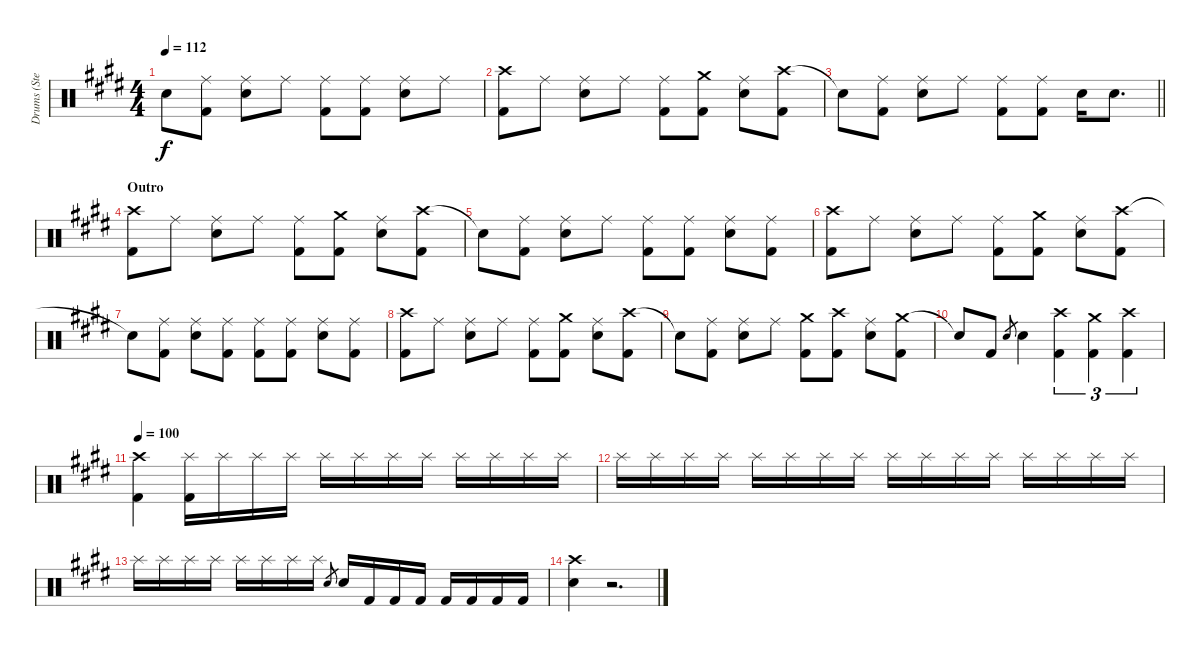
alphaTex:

\track ("Drums (Steven)" "Drums (Ste") {instrument percussion}
\staff {score}
\articulation defaults
\ts (4 4)
\tempo 112
\clef neutral
\ks e "Snare (hit)"{t}.8{dy f}
("Ride (middle)" "Kick (hit) 2").8 ("Ride (middle)" "Snare (hit) 2").8 "Ride (middle)".8 ("Ride (middle)" "Kick (hit) 2").8 ("Ride (middle)" "Kick (hit) 2").8 ("Ride (middle)" "Snare (hit) 2").8 "Ride (middle)".8 |
("Crash high (hit)" "Kick (hit) 2").8 "Ride (middle)".8 ("Ride (middle)" "Snare (hit) 2").8 "Ride (middle)".8 ("Ride (middle)" "Kick (hit) 2").8 ("Crash medium (hit)" "Kick (hit) 2").8 ("Ride (middle)" "Snare (hit) 2").8 ("Crash high (hit)" "Kick (hit) 2").8 |
\barLineRight lightlight "Snare (hit)"{t}.8
("Ride (middle)" "Kick (hit) 2").8 ("Ride (middle)" "Snare (hit) 2").8 "Ride (middle)".8 ("Ride (middle)" "Kick (hit) 2").8 ("Ride (middle)" "Kick (hit) 2").8 "Snare (hit) 2".16 "Snare (hit) 2".8{d} |
\section ("" "Outro")
("Crash high (hit)" "Kick (hit) 2").8 "Ride (middle)".8 ("Ride (middle)" "Snare (hit) 2").8 "Ride (middle)".8 ("Ride (middle)" "Kick (hit) 2").8 ("Crash medium (hit)" "Kick (hit) 2").8 ("Ride (middle)" "Snare (hit) 2").8 ("Crash high (hit)" "Kick (hit) 2").8 |
"Snare (hit)"{t}.8 ("Ride (middle)" "Kick (hit) 2").8 ("Ride (middle)" "Snare (hit) 2").8 "Ride (middle)".8 ("Ride (middle)" "Kick (hit) 2").8 ("Ride (middle)" "Kick (hit) 2").8 ("Ride (middle)" "Snare (hit) 2").8 ("Ride (middle)" "Kick (hit) 2").8 |
("Crash high (hit)" "Kick (hit) 2").8 "Ride (middle)".8 ("Ride (middle)" "Snare (hit) 2").8 "Ride (middle)".8 ("Ride (middle)" "Kick (hit) 2").8 ("Crash medium (hit)" "Kick (hit) 2").8 ("Ride (middle)" "Snare (hit) 2").8 ("Crash high (hit)" "Kick (hit) 2").8 |
"Snare (hit)"{t}.8 ("Ride (middle)" "Kick (hit) 2").8 ("Ride (middle)" "Snare (hit) 2").8 ("Ride (middle)" "Kick (hit) 2").8 ("Ride (middle)" "Kick (hit) 2").8 ("Ride (middle)" "Kick (hit) 2").8 ("Ride (middle)" "Snare (hit) 2").8 ("Ride (middle)" "Kick (hit) 2").8 |
("Crash high (hit)" "Kick (hit) 2").8 "Ride (middle)".8 ("Ride (middle)" "Snare (hit) 2").8 "Ride (middle)".8 ("Ride (middle)" "Kick (hit) 2").8 ("Crash medium (hit)" "Kick (hit) 2").8 ("Ride (middle)" "Snare (hit) 2").8 ("Crash high (hit)" "Kick (hit) 2").8 |
"Snare (hit)"{t}.8 ("Ride (middle)" "Kick (hit) 2").8 ("Ride (middle)" "Snare (hit) 2").8 "Ride (middle)".8 ("Crash medium (hit)" "Kick (hit) 2").8 ("Crash high (hit)" "Kick (hit) 2").8 ("Ride (middle)" "Snare (hit) 2").8 ("Crash medium (hit)" "Kick (hit) 2").8 |
"Snare (hit)"{t}.8 "Kick (hit) 2".8 "Snare (hit) 2".8{gr} "Snare (hit) 2".4 ("Crash high (hit)" "Kick (hit) 2").4{tu (3 2)} ("Crash medium (hit)" "Kick (hit) 2").4{tu (3 2)} ("Crash high (hit)" "Kick (hit) 2").4{tu (3 2)} |
\tempo 100
("Crash high (hit)" "Kick (hit) 2").4 ("Splash (hit)" "Kick (hit) 2").16 "Splash (hit)".16 "Splash (hit)".16 "Splash (hit)".16 "Splash (hit)".16 "Splash (hit)".16 "Splash (hit)".16 "Splash (hit)".16 "Splash (hit)".16 "Splash (hit)".16 "Splash (hit)".16 "Splash (hit)".16 |
"Splash (hit)".16 "Splash (hit)".16 "Splash (hit)".16 "Splash (hit)".16 "Splash (hit)".16 "Splash (hit)".16 "Splash (hit)".16 "Splash (hit)".16 "Splash (hit)".16 "Splash (hit)".16 "Splash (hit)".16 "Splash (hit)".16 "Splash (hit)".16 "Splash (hit)".16 "Splash (hit)".16 "Splash (hit)".16 |
"Splash (hit)".16 "Splash (hit)".16 "Splash (hit)".16 "Splash (hit)".16 "Splash (hit)".16 "Splash (hit)".16 "Splash (hit)".16 "Splash (hit)".16 "Snare (hit) 2".8{gr} "Snare (hit) 2".16 "Kick (hit) 2".16 "Kick (hit) 2".16 "Kick (hit) 2".16 "Kick (hit) 2".16 "Kick (hit) 2".16 "Kick (hit) 2".16 "Kick (hit) 2".16 |
("Crash high (hit)" "Snare (hit) 2").4 r.2{d}
